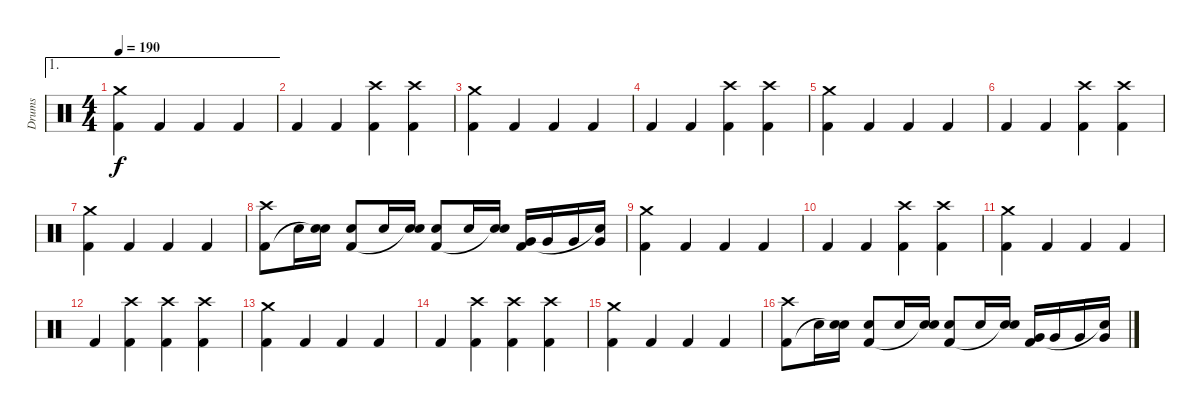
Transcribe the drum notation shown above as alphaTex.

\track ("Drums" "Drums") {instrument percussion}
\staff {score}
\articulation defaults
\ae 1
\ts (4 4)
\tempo 190
\clef neutral
\ks c
("Crash medium (hit)" "Kick (hit) 2").4{dy f} "Kick (hit) 2".4 "Kick (hit) 2".4 "Kick (hit) 2".4 |
"Kick (hit) 2".4 "Kick (hit) 2".4 ("Crash high (hit)" "Kick (hit) 2").4 ("Crash high (hit)" "Kick (hit) 2").4 |
("Crash medium (hit)" "Kick (hit) 2").4 "Kick (hit) 2".4 "Kick (hit) 2".4 "Kick (hit) 2".4 |
"Kick (hit) 2".4 "Kick (hit) 2".4 ("Crash high (hit)" "Kick (hit) 2").4 ("Crash high (hit)" "Kick (hit) 2").4 |
("Crash medium (hit)" "Kick (hit) 2").4 "Kick (hit) 2".4 "Kick (hit) 2".4 "Kick (hit) 2".4 |
"Kick (hit) 2".4 "Kick (hit) 2".4 ("Crash high (hit)" "Kick (hit) 2").4 ("Crash high (hit)" "Kick (hit) 2").4 |
("Crash medium (hit)" "Kick (hit) 2").4 "Kick (hit) 2".4 "Kick (hit) 2".4 "Kick (hit) 2".4 |
("Crash high (hit)" "Kick (hit) 2").8 "Snare (hit) 2".16 ("Snare (hit) 2" "Snare (hit)"{t}).16 ("Snare (hit) 2" "Kick (hit) 2").8 "Snare (hit) 2".16 ("Snare (hit) 2" "Snare (hit)"{t}).16 ("Snare (hit) 2" "Kick (hit) 2").8 "Snare (hit) 2".16 ("Snare (hit) 2" "Snare (hit)"{t}).16 ("Very Low Tom (hit)" "Kick (hit) 2").16 "Very Low Tom (hit)".16 "Very Low Tom (hit)".16 ("Very Low Tom (hit)" "Snare (hit)"{t}).16 |
("Crash medium (hit)" "Kick (hit) 2").4 "Kick (hit) 2".4 "Kick (hit) 2".4 "Kick (hit) 2".4 |
"Kick (hit) 2".4 "Kick (hit) 2".4 ("Crash high (hit)" "Kick (hit) 2").4 ("Crash high (hit)" "Kick (hit) 2").4 |
("Crash medium (hit)" "Kick (hit) 2").4 "Kick (hit) 2".4 "Kick (hit) 2".4 "Kick (hit) 2".4 |
"Kick (hit) 2".4 ("Crash high (hit)" "Kick (hit) 2").4 ("Crash high (hit)" "Kick (hit) 2").4 ("Crash high (hit)" "Kick (hit) 2").4 |
("Crash medium (hit)" "Kick (hit) 2").4 "Kick (hit) 2".4 "Kick (hit) 2".4 "Kick (hit) 2".4 |
"Kick (hit) 2".4 ("Crash high (hit)" "Kick (hit) 2").4 ("Crash high (hit)" "Kick (hit) 2").4 ("Crash high (hit)" "Kick (hit) 2").4 |
("Crash medium (hit)" "Kick (hit) 2").4 "Kick (hit) 2".4 "Kick (hit) 2".4 "Kick (hit) 2".4 |
("Crash high (hit)" "Kick (hit) 2").8 "Snare (hit) 2".16 ("Snare (hit) 2" "Snare (hit)"{t}).16 ("Snare (hit) 2" "Kick (hit) 2").8 "Snare (hit) 2".16 ("Snare (hit) 2" "Snare (hit)"{t}).16 ("Snare (hit) 2" "Kick (hit) 2").8 "Snare (hit) 2".16 ("Snare (hit) 2" "Snare (hit)"{t}).16 ("Very Low Tom (hit)" "Kick (hit) 2").16 "Very Low Tom (hit)".16 "Very Low Tom (hit)".16 ("Very Low Tom (hit)" "Snare (hit)"{t}).16
